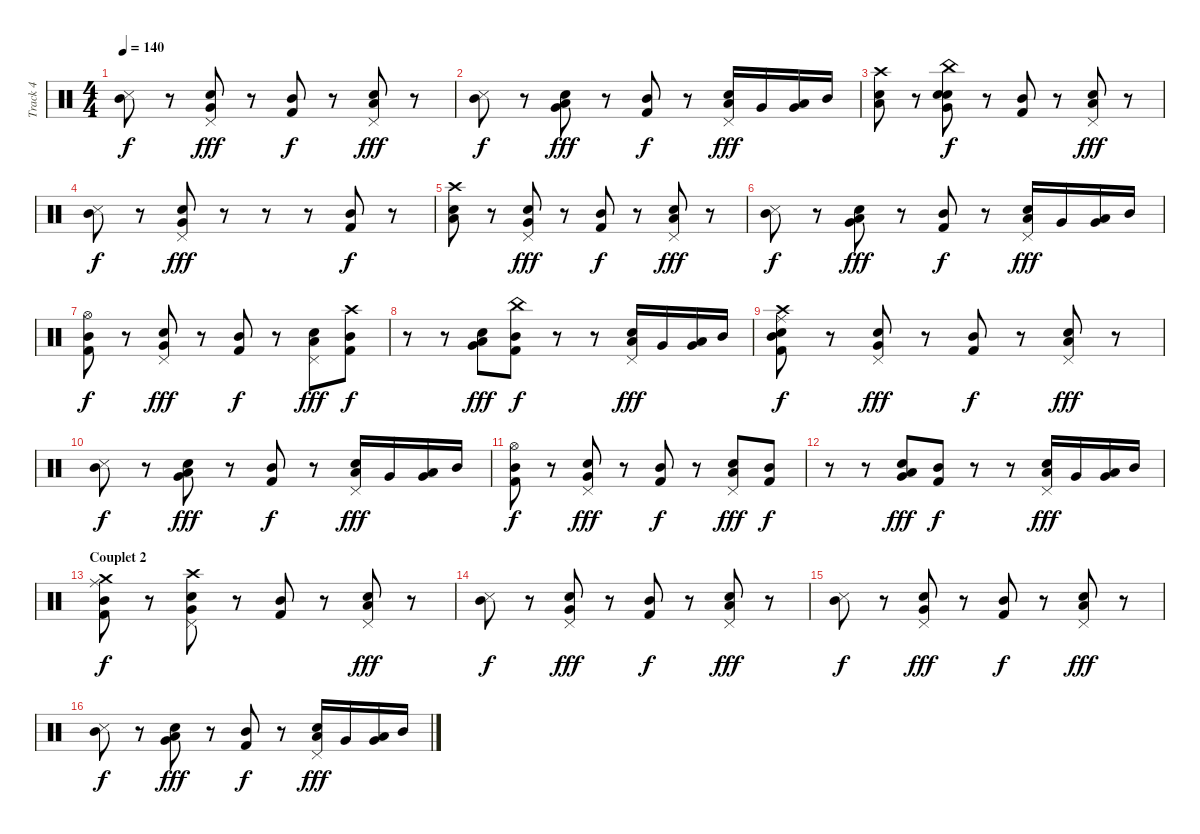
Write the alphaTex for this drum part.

\track ("Track 4" "Track 4") {instrument percussion}
\staff {score}
\articulation defaults
\ts (4 4)
\tempo 140
\clef neutral
\ks c
("Mid Tom (hit)" "Snare (side stick) 3").8{dy f} r.8 ("Pedal Hi-Hat (hit)" "Snare (hit) 2" "Very Low Tom (hit)").8{dy fff} r.8 ("Mid Tom (hit)" "Kick (hit) 2").8{dy f} r.8 ("Low Tom (hit)" "Electric Snare (hit)" "Pedal Hi-Hat (hit)").8{dy fff} r.8 |
("Mid Tom (hit)" "Snare (side stick) 3").8{dy f} r.8 ("Snare (hit) 2" "Low Tom (hit)" "Very Low Tom (hit)").8{dy fff} r.8 ("Mid Tom (hit)" "Kick (hit) 2").8{dy f} r.8 ("Low Tom (hit)" "Pedal Hi-Hat (hit)" "Electric Snare (hit)").16{dy fff} "Very Low Tom (hit)".16 ("Very Low Tom (hit)" "Low Tom (hit)").16 "Mid Tom (hit)".16 |
("Electric Snare (hit)" "Low Tom (hit)" "Crash high (hit)").8 r.8 ("Electric Snare (hit)" "Snare (hit) 2" "Very Low Tom (hit)" "China (hit)").8{dy f} r.8 ("Mid Tom (hit)" "Kick (hit) 2").8 r.8 ("Low Tom (hit)" "Electric Snare (hit)" "Pedal Hi-Hat (hit)").8{dy fff} r.8 |
("Mid Tom (hit)" "Snare (side stick) 3").8{dy f} r.8 ("Pedal Hi-Hat (hit)" "Snare (hit) 2" "Very Low Tom (hit)").8{dy fff} r.8 r.8 r.8 ("Mid Tom (hit)" "Kick (hit) 2").8{dy f} r.8 |
("Electric Snare (hit)" "Low Tom (hit)" "Crash high (hit)").8 r.8 ("Pedal Hi-Hat (hit)" "Snare (hit) 2" "Very Low Tom (hit)").8{dy fff} r.8 ("Mid Tom (hit)" "Kick (hit) 2").8{dy f} r.8 ("Low Tom (hit)" "Electric Snare (hit)" "Pedal Hi-Hat (hit)").8{dy fff} r.8 |
("Mid Tom (hit)" "Snare (side stick) 3").8{dy f} r.8 ("Snare (hit) 2" "Low Tom (hit)" "Very Low Tom (hit)").8{dy fff} r.8 ("Mid Tom (hit)" "Kick (hit) 2").8{dy f} r.8 ("Low Tom (hit)" "Pedal Hi-Hat (hit)" "Electric Snare (hit)").16{dy fff} "Very Low Tom (hit)".16 ("Very Low Tom (hit)" "Low Tom (hit)").16 "Mid Tom (hit)".16 |
("Mid Tom (hit)" "Kick (hit) 2" "Hi-Hat (open)").8{dy f} r.8 ("Pedal Hi-Hat (hit)" "Snare (hit) 2" "Very Low Tom (hit)").8{dy fff} r.8 ("Mid Tom (hit)" "Kick (hit) 2").8{dy f} r.8 ("Low Tom (hit)" "Electric Snare (hit)" "Pedal Hi-Hat (hit)").8{dy fff} ("Mid Tom (hit)" "Kick (hit) 2" "Crash high (hit)").8{dy f} |
r.8 r.8 ("Snare (hit) 2" "Low Tom (hit)" "Very Low Tom (hit)").8{dy fff} ("Mid Tom (hit)" "Kick (hit) 2" "China (hit)").8{dy f} r.8 r.8 ("Low Tom (hit)" "Pedal Hi-Hat (hit)" "Electric Snare (hit)").16{dy fff} "Very Low Tom (hit)".16 ("Very Low Tom (hit)" "Low Tom (hit)").16 "Mid Tom (hit)".16 |
("Mid Tom (hit)" "Kick (hit) 2" "Snare (hit) 2" "Ride (middle)" "Crash high (hit)").8{dy f} r.8 ("Pedal Hi-Hat (hit)" "Snare (hit) 2" "Very Low Tom (hit)").8{dy fff} r.8 ("Mid Tom (hit)" "Kick (hit) 2").8{dy f} r.8 ("Low Tom (hit)" "Electric Snare (hit)" "Pedal Hi-Hat (hit)").8{dy fff} r.8 |
("Mid Tom (hit)" "Snare (side stick) 3").8{dy f} r.8 ("Snare (hit) 2" "Low Tom (hit)" "Very Low Tom (hit)").8{dy fff} r.8 ("Mid Tom (hit)" "Kick (hit) 2").8{dy f} r.8 ("Low Tom (hit)" "Pedal Hi-Hat (hit)" "Electric Snare (hit)").16{dy fff} "Very Low Tom (hit)".16 ("Very Low Tom (hit)" "Low Tom (hit)").16 "Mid Tom (hit)".16 |
("Mid Tom (hit)" "Kick (hit) 2" "Hi-Hat (open)").8{dy f} r.8 ("Pedal Hi-Hat (hit)" "Snare (hit) 2" "Very Low Tom (hit)").8{dy fff} r.8 ("Mid Tom (hit)" "Kick (hit) 2").8{dy f} r.8 ("Low Tom (hit)" "Electric Snare (hit)" "Pedal Hi-Hat (hit)").8{dy fff} ("Mid Tom (hit)" "Kick (hit) 2").8{dy f} |
r.8 r.8 ("Snare (hit) 2" "Low Tom (hit)" "Very Low Tom (hit)").8{dy fff} ("Mid Tom (hit)" "Kick (hit) 2").8{dy f} r.8 r.8 ("Low Tom (hit)" "Pedal Hi-Hat (hit)" "Electric Snare (hit)").16{dy fff} "Very Low Tom (hit)".16 ("Very Low Tom (hit)" "Low Tom (hit)").16 "Mid Tom (hit)".16 |
\section ("" "Couplet 2")
("Mid Tom (hit)" "Kick (hit) 2" "Ride (middle)" "Crash medium (hit)").8{dy f} r.8 ("Pedal Hi-Hat (hit)" "Snare (hit) 2" "Very Low Tom (hit)" "Crash high (hit)").8 r.8 ("Mid Tom (hit)" "Kick (hit) 2").8 r.8 ("Low Tom (hit)" "Electric Snare (hit)" "Pedal Hi-Hat (hit)").8{dy fff} r.8 |
("Mid Tom (hit)" "Snare (side stick) 3").8{dy f} r.8 ("Pedal Hi-Hat (hit)" "Snare (hit) 2" "Very Low Tom (hit)").8{dy fff} r.8 ("Mid Tom (hit)" "Kick (hit) 2").8{dy f} r.8 ("Low Tom (hit)" "Electric Snare (hit)" "Pedal Hi-Hat (hit)").8{dy fff} r.8 |
("Mid Tom (hit)" "Snare (side stick) 3").8{dy f} r.8 ("Pedal Hi-Hat (hit)" "Snare (hit) 2" "Very Low Tom (hit)").8{dy fff} r.8 ("Mid Tom (hit)" "Kick (hit) 2").8{dy f} r.8 ("Low Tom (hit)" "Electric Snare (hit)" "Pedal Hi-Hat (hit)").8{dy fff} r.8 |
("Mid Tom (hit)" "Snare (side stick) 3").8{dy f} r.8 ("Snare (hit) 2" "Low Tom (hit)" "Very Low Tom (hit)").8{dy fff} r.8 ("Mid Tom (hit)" "Kick (hit) 2").8{dy f} r.8 ("Low Tom (hit)" "Pedal Hi-Hat (hit)" "Electric Snare (hit)").16{dy fff} "Very Low Tom (hit)".16 ("Very Low Tom (hit)" "Low Tom (hit)").16 "Mid Tom (hit)".16
